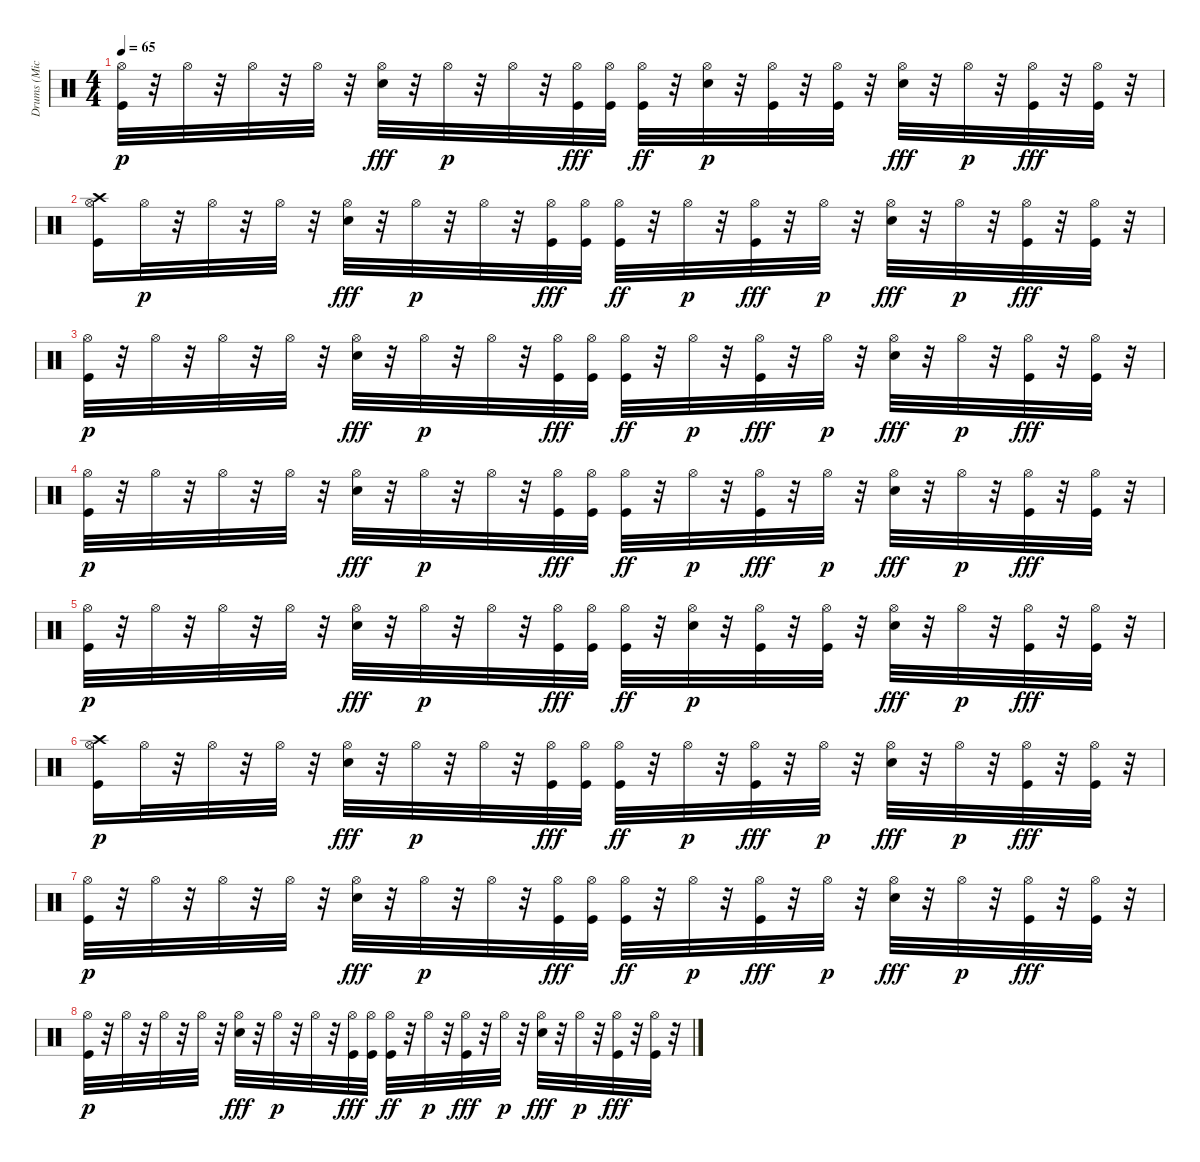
\track ("Drums (Michael Giles)" "Drums (Mic") {instrument percussion}
\staff {score}
\articulation defaults
\ts (4 4)
\tempo 65
\clef neutral
\ks c
("Kick (hit)" "Hi-Hat (open)").32{dy p} r.32 "Hi-Hat (open)".32 r.32 "Hi-Hat (open)".32 r.32 "Hi-Hat (open)".32 r.32 ("Hi-Hat (open)" "Snare (hit) 2").32{dy fff} r.32 "Hi-Hat (open)".32{dy p} r.32 "Hi-Hat (open)".32 r.32 ("Hi-Hat (open)" "Kick (hit)").32{dy fff} ("Hi-Hat (open)" "Kick (hit)").32 ("Hi-Hat (open)" "Kick (hit)").32{dy ff} r.32 ("Snare (hit) 2" "Hi-Hat (open)").32{dy p} r.32 ("Kick (hit)" "Hi-Hat (open)").32 r.32 ("Kick (hit)" "Hi-Hat (open)").32 r.32 ("Hi-Hat (open)" "Snare (hit) 2").32{dy fff} r.32 "Hi-Hat (open)".32{dy p} r.32 ("Hi-Hat (open)" "Kick (hit)").32{dy fff} r.32 ("Hi-Hat (open)" "Kick (hit)").32 r.32 |
("Kick (hit)" "Hi-Hat (open)" "Crash high (hit)").16 "Hi-Hat (open)".32{dy p} r.32 "Hi-Hat (open)".32 r.32 "Hi-Hat (open)".32 r.32 ("Hi-Hat (open)" "Snare (hit) 2").32{dy fff} r.32 "Hi-Hat (open)".32{dy p} r.32 "Hi-Hat (open)".32 r.32 ("Hi-Hat (open)" "Kick (hit)").32{dy fff} ("Hi-Hat (open)" "Kick (hit)").32 ("Hi-Hat (open)" "Kick (hit)").32{dy ff} r.32 "Hi-Hat (open)".32{dy p} r.32 ("Hi-Hat (open)" "Kick (hit)").32{dy fff} r.32 "Hi-Hat (open)".32{dy p} r.32 ("Hi-Hat (open)" "Snare (hit) 2").32{dy fff} r.32 "Hi-Hat (open)".32{dy p} r.32 ("Hi-Hat (open)" "Kick (hit)").32{dy fff} r.32 ("Hi-Hat (open)" "Kick (hit)").32 r.32 |
("Kick (hit)" "Hi-Hat (open)").32{dy p} r.32 "Hi-Hat (open)".32 r.32 "Hi-Hat (open)".32 r.32 "Hi-Hat (open)".32 r.32 ("Hi-Hat (open)" "Snare (hit) 2").32{dy fff} r.32 "Hi-Hat (open)".32{dy p} r.32 "Hi-Hat (open)".32 r.32 ("Hi-Hat (open)" "Kick (hit)").32{dy fff} ("Hi-Hat (open)" "Kick (hit)").32 ("Hi-Hat (open)" "Kick (hit)").32{dy ff} r.32 "Hi-Hat (open)".32{dy p} r.32 ("Hi-Hat (open)" "Kick (hit)").32{dy fff} r.32 "Hi-Hat (open)".32{dy p} r.32 ("Hi-Hat (open)" "Snare (hit) 2").32{dy fff} r.32 "Hi-Hat (open)".32{dy p} r.32 ("Hi-Hat (open)" "Kick (hit)").32{dy fff} r.32 ("Hi-Hat (open)" "Kick (hit)").32 r.32 |
("Kick (hit)" "Hi-Hat (open)").32{dy p} r.32 "Hi-Hat (open)".32 r.32 "Hi-Hat (open)".32 r.32 "Hi-Hat (open)".32 r.32 ("Hi-Hat (open)" "Snare (hit) 2").32{dy fff} r.32 "Hi-Hat (open)".32{dy p} r.32 "Hi-Hat (open)".32 r.32 ("Hi-Hat (open)" "Kick (hit)").32{dy fff} ("Hi-Hat (open)" "Kick (hit)").32 ("Hi-Hat (open)" "Kick (hit)").32{dy ff} r.32 "Hi-Hat (open)".32{dy p} r.32 ("Hi-Hat (open)" "Kick (hit)").32{dy fff} r.32 "Hi-Hat (open)".32{dy p} r.32 ("Hi-Hat (open)" "Snare (hit) 2").32{dy fff} r.32 "Hi-Hat (open)".32{dy p} r.32 ("Hi-Hat (open)" "Kick (hit)").32{dy fff} r.32 ("Hi-Hat (open)" "Kick (hit)").32 r.32 |
("Kick (hit)" "Hi-Hat (open)").32{dy p} r.32 "Hi-Hat (open)".32 r.32 "Hi-Hat (open)".32 r.32 "Hi-Hat (open)".32 r.32 ("Hi-Hat (open)" "Snare (hit) 2").32{dy fff} r.32 "Hi-Hat (open)".32{dy p} r.32 "Hi-Hat (open)".32 r.32 ("Hi-Hat (open)" "Kick (hit)").32{dy fff} ("Hi-Hat (open)" "Kick (hit)").32 ("Hi-Hat (open)" "Kick (hit)").32{dy ff} r.32 ("Snare (hit) 2" "Hi-Hat (open)").32{dy p} r.32 ("Kick (hit)" "Hi-Hat (open)").32 r.32 ("Kick (hit)" "Hi-Hat (open)").32 r.32 ("Hi-Hat (open)" "Snare (hit) 2").32{dy fff} r.32 "Hi-Hat (open)".32{dy p} r.32 ("Hi-Hat (open)" "Kick (hit)").32{dy fff} r.32 ("Hi-Hat (open)" "Kick (hit)").32 r.32 |
("Kick (hit)" "Hi-Hat (open)" "Crash high (hit)").16{dy p} "Hi-Hat (open)".32 r.32 "Hi-Hat (open)".32 r.32 "Hi-Hat (open)".32 r.32 ("Hi-Hat (open)" "Snare (hit) 2").32{dy fff} r.32 "Hi-Hat (open)".32{dy p} r.32 "Hi-Hat (open)".32 r.32 ("Hi-Hat (open)" "Kick (hit)").32{dy fff} ("Hi-Hat (open)" "Kick (hit)").32 ("Hi-Hat (open)" "Kick (hit)").32{dy ff} r.32 "Hi-Hat (open)".32{dy p} r.32 ("Hi-Hat (open)" "Kick (hit)").32{dy fff} r.32 "Hi-Hat (open)".32{dy p} r.32 ("Hi-Hat (open)" "Snare (hit) 2").32{dy fff} r.32 "Hi-Hat (open)".32{dy p} r.32 ("Hi-Hat (open)" "Kick (hit)").32{dy fff} r.32 ("Hi-Hat (open)" "Kick (hit)").32 r.32 |
("Kick (hit)" "Hi-Hat (open)").32{dy p} r.32 "Hi-Hat (open)".32 r.32 "Hi-Hat (open)".32 r.32 "Hi-Hat (open)".32 r.32 ("Hi-Hat (open)" "Snare (hit) 2").32{dy fff} r.32 "Hi-Hat (open)".32{dy p} r.32 "Hi-Hat (open)".32 r.32 ("Hi-Hat (open)" "Kick (hit)").32{dy fff} ("Hi-Hat (open)" "Kick (hit)").32 ("Hi-Hat (open)" "Kick (hit)").32{dy ff} r.32 "Hi-Hat (open)".32{dy p} r.32 ("Hi-Hat (open)" "Kick (hit)").32{dy fff} r.32 "Hi-Hat (open)".32{dy p} r.32 ("Hi-Hat (open)" "Snare (hit) 2").32{dy fff} r.32 "Hi-Hat (open)".32{dy p} r.32 ("Hi-Hat (open)" "Kick (hit)").32{dy fff} r.32 ("Hi-Hat (open)" "Kick (hit)").32 r.32 |
("Kick (hit)" "Hi-Hat (open)").32{dy p} r.32 "Hi-Hat (open)".32 r.32 "Hi-Hat (open)".32 r.32 "Hi-Hat (open)".32 r.32 ("Hi-Hat (open)" "Snare (hit) 2").32{dy fff} r.32 "Hi-Hat (open)".32{dy p} r.32 "Hi-Hat (open)".32 r.32 ("Hi-Hat (open)" "Kick (hit)").32{dy fff} ("Hi-Hat (open)" "Kick (hit)").32 ("Hi-Hat (open)" "Kick (hit)").32{dy ff} r.32 "Hi-Hat (open)".32{dy p} r.32 ("Hi-Hat (open)" "Kick (hit)").32{dy fff} r.32 "Hi-Hat (open)".32{dy p} r.32 ("Hi-Hat (open)" "Snare (hit) 2").32{dy fff} r.32 "Hi-Hat (open)".32{dy p} r.32 ("Hi-Hat (open)" "Kick (hit)").32{dy fff} r.32 ("Hi-Hat (open)" "Kick (hit)").32 r.32
